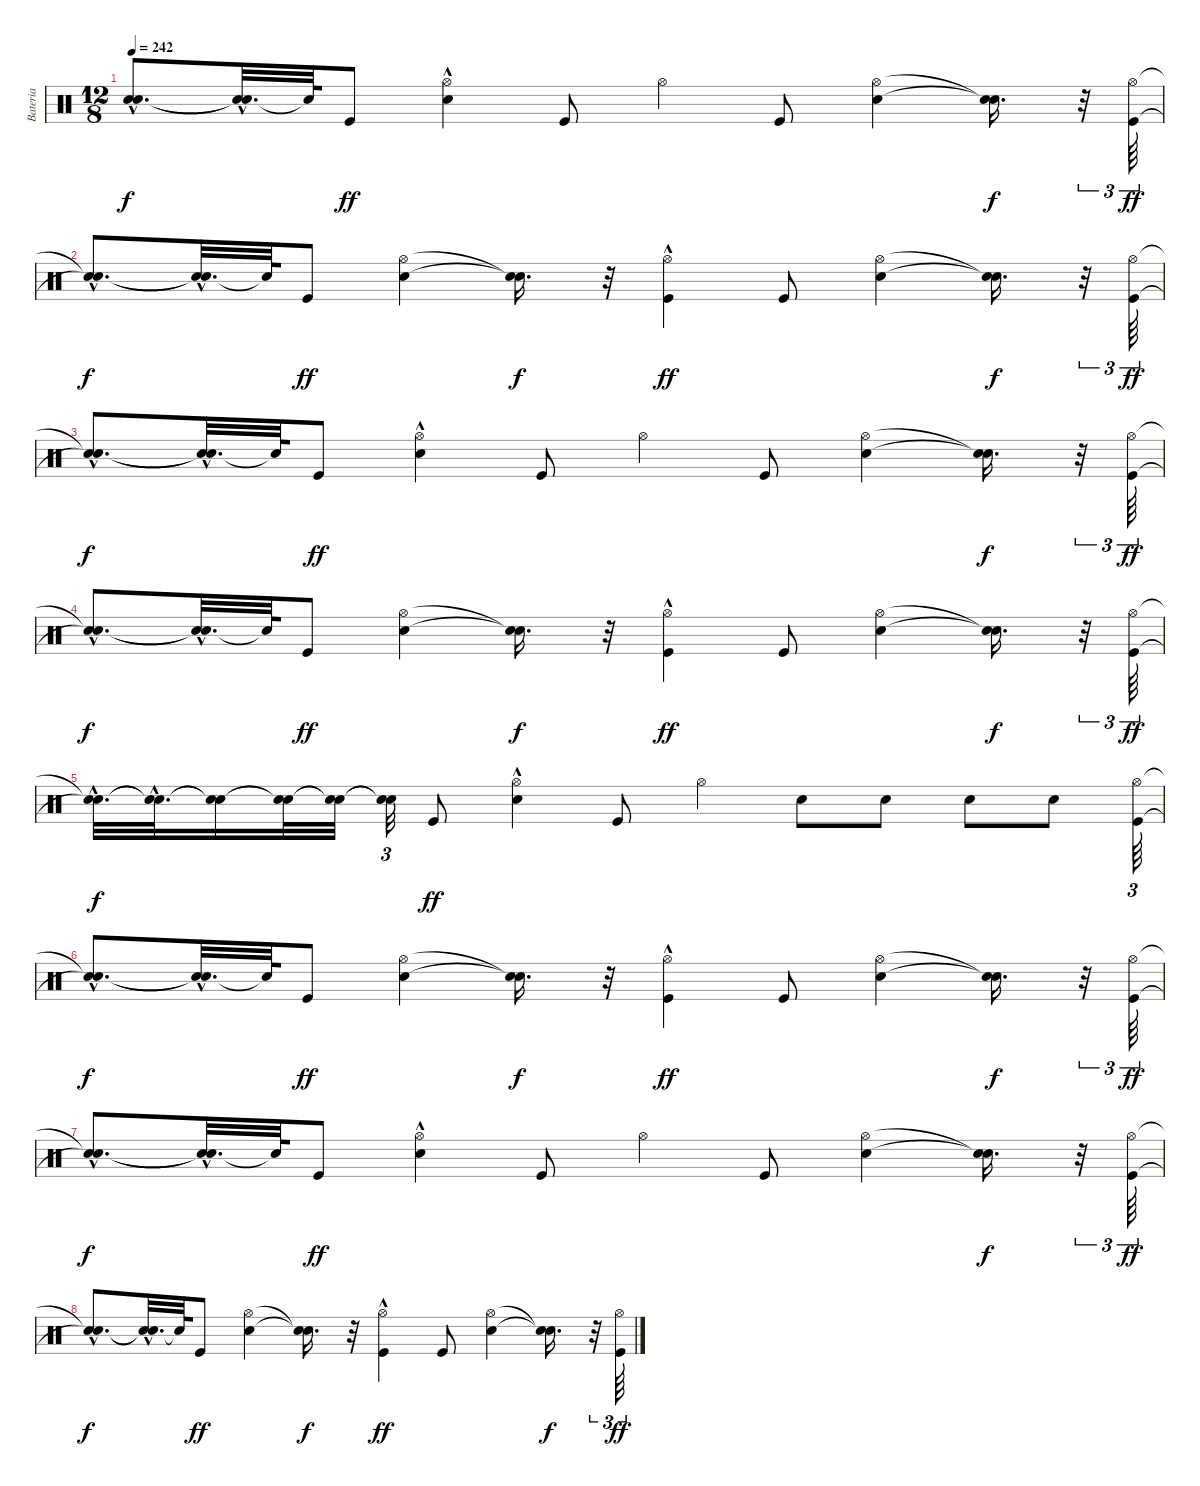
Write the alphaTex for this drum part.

\track ("Bateria" "Bateria") {instrument percussion}
\staff {score}
\articulation defaults
\ts (12 8)
\tempo 242
\clef neutral
\ks c
("Snare (hit)"{hac t} "Snare (hit)"{hac t}).8{d dy f} ("Snare (hit)"{t} "Snare (hit)"{hac t}).32{d} "Snare (hit)"{t}.64 "Kick (hit)".8{dy ff} ("Snare (hit) 2"{hac} "Hi-Hat (open)").4 "Kick (hit)".8 "Hi-Hat (open)".4 "Kick (hit)".8 ("Snare (hit) 2" "Hi-Hat (open)").4 ("Snare (hit)"{t} "Snare (hit)"{t}).16{d dy f} r.32{tu (3 2)} ("Kick (hit)" "Hi-Hat (open)").64{tu (3 2) dy ff} |
("Snare (hit)"{hac t} "Snare (hit)"{hac t}).8{d dy f} ("Snare (hit)"{t} "Snare (hit)"{hac t}).32{d} "Snare (hit)"{t}.64 "Kick (hit)".8{dy ff} ("Snare (hit) 2" "Hi-Hat (open)").4 ("Snare (hit)"{t} "Snare (hit)"{t}).16{d dy f} r.32 ("Kick (hit)"{hac} "Hi-Hat (open)").4{dy ff} "Kick (hit)".8 ("Snare (hit) 2" "Hi-Hat (open)").4 ("Snare (hit)"{t} "Snare (hit)"{t}).16{d dy f} r.32{tu (3 2)} ("Kick (hit)" "Hi-Hat (open)").64{tu (3 2) dy ff} |
("Snare (hit)"{hac t} "Snare (hit)"{hac t}).8{d dy f} ("Snare (hit)"{t} "Snare (hit)"{hac t}).32{d} "Snare (hit)"{t}.64 "Kick (hit)".8{dy ff} ("Snare (hit) 2"{hac} "Hi-Hat (open)").4 "Kick (hit)".8 "Hi-Hat (open)".4 "Kick (hit)".8 ("Snare (hit) 2" "Hi-Hat (open)").4 ("Snare (hit)"{t} "Snare (hit)"{t}).16{d dy f} r.32{tu (3 2)} ("Kick (hit)" "Hi-Hat (open)").64{tu (3 2) dy ff} |
("Snare (hit)"{hac t} "Snare (hit)"{hac t}).8{d dy f} ("Snare (hit)"{t} "Snare (hit)"{hac t}).32{d} "Snare (hit)"{t}.64 "Kick (hit)".8{dy ff} ("Snare (hit) 2" "Hi-Hat (open)").4 ("Snare (hit)"{t} "Snare (hit)"{t}).16{d dy f} r.32 ("Kick (hit)"{hac} "Hi-Hat (open)").4{dy ff} "Kick (hit)".8 ("Snare (hit) 2" "Hi-Hat (open)").4 ("Snare (hit)"{t} "Snare (hit)"{t}).16{d dy f} r.32{tu (3 2)} ("Kick (hit)" "Hi-Hat (open)").64{tu (3 2) dy ff} |
("Snare (hit)"{hac t} "Snare (hit)"{hac t}).32{d dy f} ("Snare (hit)"{t} "Snare (hit)"{hac t}).32{d} ("Snare (hit)"{t} "Snare (hit)"{t}).16 ("Snare (hit)"{t} "Snare (hit)"{t}).32 ("Snare (hit)"{t} "Snare (hit)"{t}).32 ("Snare (hit)"{t} "Snare (hit)"{t}).32{tu (3 2)} "Kick (hit)".8{dy ff} ("Snare (hit) 2"{hac} "Hi-Hat (open)").4 "Kick (hit)".8 "Hi-Hat (open)".4 "Snare (hit) 2".8 "Snare (hit) 2".8 "Snare (hit) 2".8 "Snare (hit) 2".8 ("Kick (hit)" "Hi-Hat (open)").64{tu (3 2)} |
("Snare (hit)"{hac t} "Snare (hit)"{hac t}).8{d dy f} ("Snare (hit)"{t} "Snare (hit)"{hac t}).32{d} "Snare (hit)"{t}.64 "Kick (hit)".8{dy ff} ("Snare (hit) 2" "Hi-Hat (open)").4 ("Snare (hit)"{t} "Snare (hit)"{t}).16{d dy f} r.32 ("Kick (hit)"{hac} "Hi-Hat (open)").4{dy ff} "Kick (hit)".8 ("Snare (hit) 2" "Hi-Hat (open)").4 ("Snare (hit)"{t} "Snare (hit)"{t}).16{d dy f} r.32{tu (3 2)} ("Kick (hit)" "Hi-Hat (open)").64{tu (3 2) dy ff} |
("Snare (hit)"{hac t} "Snare (hit)"{hac t}).8{d dy f} ("Snare (hit)"{t} "Snare (hit)"{hac t}).32{d} "Snare (hit)"{t}.64 "Kick (hit)".8{dy ff} ("Snare (hit) 2"{hac} "Hi-Hat (open)").4 "Kick (hit)".8 "Hi-Hat (open)".4 "Kick (hit)".8 ("Snare (hit) 2" "Hi-Hat (open)").4 ("Snare (hit)"{t} "Snare (hit)"{t}).16{d dy f} r.32{tu (3 2)} ("Kick (hit)" "Hi-Hat (open)").64{tu (3 2) dy ff} |
("Snare (hit)"{hac t} "Snare (hit)"{hac t}).8{d dy f} ("Snare (hit)"{t} "Snare (hit)"{hac t}).32{d} "Snare (hit)"{t}.64 "Kick (hit)".8{dy ff} ("Snare (hit) 2" "Hi-Hat (open)").4 ("Snare (hit)"{t} "Snare (hit)"{t}).16{d dy f} r.32 ("Kick (hit)"{hac} "Hi-Hat (open)").4{dy ff} "Kick (hit)".8 ("Snare (hit) 2" "Hi-Hat (open)").4 ("Snare (hit)"{t} "Snare (hit)"{t}).16{d dy f} r.32{tu (3 2)} ("Kick (hit)" "Hi-Hat (open)").64{tu (3 2) dy ff}
